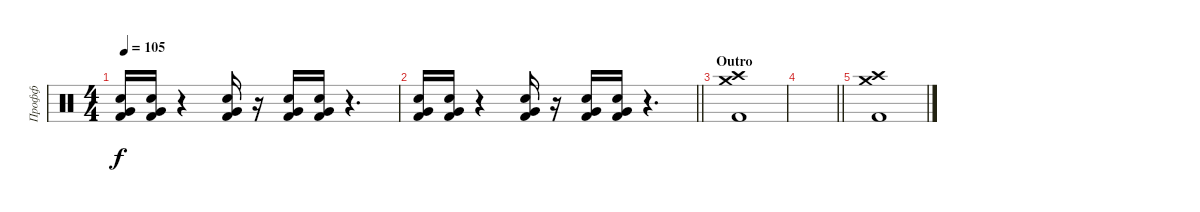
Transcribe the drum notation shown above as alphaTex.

\track ("Профф" "Профф") {instrument percussion}
\staff {score}
\articulation defaults
\ts (4 4)
\tempo 105
\clef neutral
\ks c
("Very Low Tom (hit)" "Snare (hit) 2" "Kick (hit) 2").16{dy f} ("Very Low Tom (hit)" "Snare (hit) 2" "Kick (hit) 2").16 r.4 ("Very Low Tom (hit)" "Snare (hit) 2" "Kick (hit) 2").16 r.16 ("Very Low Tom (hit)" "Snare (hit) 2" "Kick (hit) 2").16 ("Very Low Tom (hit)" "Snare (hit) 2" "Kick (hit) 2").16 r.4{d} |
\barLineRight lightlight
("Very Low Tom (hit)" "Snare (hit) 2" "Kick (hit) 2").16 ("Very Low Tom (hit)" "Snare (hit) 2" "Kick (hit) 2").16 r.4 ("Very Low Tom (hit)" "Snare (hit) 2" "Kick (hit) 2").16 r.16 ("Very Low Tom (hit)" "Snare (hit) 2" "Kick (hit) 2").16 ("Very Low Tom (hit)" "Snare (hit) 2" "Kick (hit) 2").16 r.4{d} |
\section ("" "Outro")
("Crash high (hit)" "Crash medium (hit)" "Kick (hit) 2").1 |
\barLineRight lightlight
|
("Crash high (hit)" "Crash medium (hit)" "Kick (hit) 2").1
